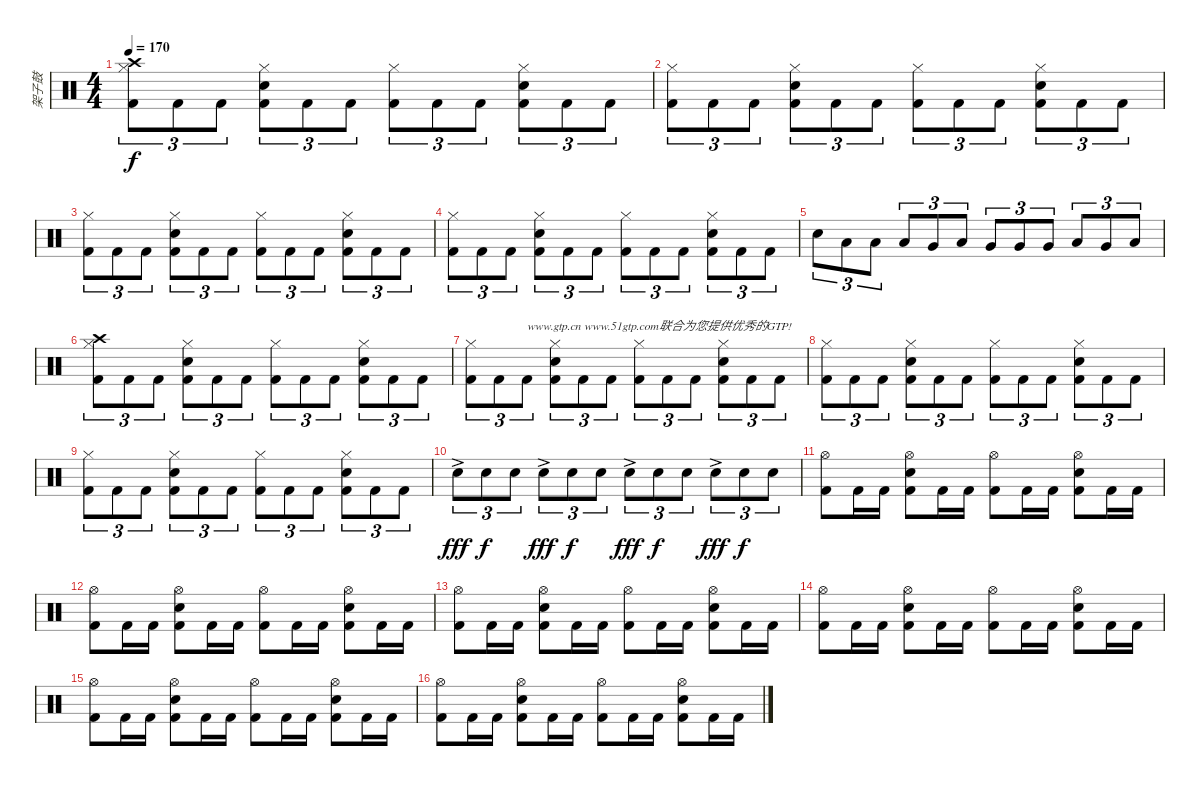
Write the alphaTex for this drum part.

\track ("架子鼓" "架子鼓") {instrument percussion}
\staff {score}
\articulation defaults
\ts (4 4)
\tempo 170
\clef neutral
\ks c
("Hi-Hat (closed)" "Kick (hit) 2" "Crash high (hit)").8{tu (3 2) dy f} "Kick (hit) 2".8{tu (3 2)} "Kick (hit) 2".8{tu (3 2)} ("Hi-Hat (closed)" "Snare (hit) 2" "Kick (hit) 2").8{tu (3 2)} "Kick (hit) 2".8{tu (3 2)} "Kick (hit) 2".8{tu (3 2)} ("Hi-Hat (closed)" "Kick (hit) 2").8{tu (3 2)} "Kick (hit) 2".8{tu (3 2)} "Kick (hit) 2".8{tu (3 2)} ("Hi-Hat (closed)" "Snare (hit) 2" "Kick (hit) 2").8{tu (3 2)} "Kick (hit) 2".8{tu (3 2)} "Kick (hit) 2".8{tu (3 2)} |
("Hi-Hat (closed)" "Kick (hit) 2").8{tu (3 2)} "Kick (hit) 2".8{tu (3 2)} "Kick (hit) 2".8{tu (3 2)} ("Hi-Hat (closed)" "Snare (hit) 2" "Kick (hit) 2").8{tu (3 2)} "Kick (hit) 2".8{tu (3 2)} "Kick (hit) 2".8{tu (3 2)} ("Hi-Hat (closed)" "Kick (hit) 2").8{tu (3 2)} "Kick (hit) 2".8{tu (3 2)} "Kick (hit) 2".8{tu (3 2)} ("Hi-Hat (closed)" "Snare (hit) 2" "Kick (hit) 2").8{tu (3 2)} "Kick (hit) 2".8{tu (3 2)} "Kick (hit) 2".8{tu (3 2)} |
("Hi-Hat (closed)" "Kick (hit) 2").8{tu (3 2)} "Kick (hit) 2".8{tu (3 2)} "Kick (hit) 2".8{tu (3 2)} ("Hi-Hat (closed)" "Snare (hit) 2" "Kick (hit) 2").8{tu (3 2)} "Kick (hit) 2".8{tu (3 2)} "Kick (hit) 2".8{tu (3 2)} ("Hi-Hat (closed)" "Kick (hit) 2").8{tu (3 2)} "Kick (hit) 2".8{tu (3 2)} "Kick (hit) 2".8{tu (3 2)} ("Hi-Hat (closed)" "Snare (hit) 2" "Kick (hit) 2").8{tu (3 2)} "Kick (hit) 2".8{tu (3 2)} "Kick (hit) 2".8{tu (3 2)} |
("Hi-Hat (closed)" "Kick (hit) 2").8{tu (3 2)} "Kick (hit) 2".8{tu (3 2)} "Kick (hit) 2".8{tu (3 2)} ("Hi-Hat (closed)" "Snare (hit) 2" "Kick (hit) 2").8{tu (3 2)} "Kick (hit) 2".8{tu (3 2)} "Kick (hit) 2".8{tu (3 2)} ("Hi-Hat (closed)" "Kick (hit) 2").8{tu (3 2)} "Kick (hit) 2".8{tu (3 2)} "Kick (hit) 2".8{tu (3 2)} ("Hi-Hat (closed)" "Snare (hit) 2" "Kick (hit) 2").8{tu (3 2)} "Kick (hit) 2".8{tu (3 2)} "Kick (hit) 2".8{tu (3 2)} |
"Snare (hit) 2".8{tu (3 2)} "Low Tom (hit)".8{tu (3 2)} "Low Tom (hit)".8{tu (3 2)} "Low Tom (hit)".8{tu (3 2)} "Very Low Tom (hit)".8{tu (3 2)} "Low Tom (hit)".8{tu (3 2)} "Very Low Tom (hit)".8{tu (3 2)} "Very Low Tom (hit)".8{tu (3 2)} "Very Low Tom (hit)".8{tu (3 2)} "Low Floor Tom (hit)".8{tu (3 2)} "Very Low Tom (hit)".8{tu (3 2)} "Low Floor Tom (hit)".8{tu (3 2)} |
("Hi-Hat (closed)" "Kick (hit) 2" "Crash high (hit)").8{tu (3 2)} "Kick (hit) 2".8{tu (3 2)} "Kick (hit) 2".8{tu (3 2)} ("Hi-Hat (closed)" "Snare (hit) 2" "Kick (hit) 2").8{tu (3 2)} "Kick (hit) 2".8{tu (3 2)} "Kick (hit) 2".8{tu (3 2)} ("Hi-Hat (closed)" "Kick (hit) 2").8{tu (3 2)} "Kick (hit) 2".8{tu (3 2)} "Kick (hit) 2".8{tu (3 2)} ("Hi-Hat (closed)" "Snare (hit) 2" "Kick (hit) 2").8{tu (3 2)} "Kick (hit) 2".8{tu (3 2)} "Kick (hit) 2".8{tu (3 2)} |
("Hi-Hat (closed)" "Kick (hit) 2").8{tu (3 2)} "Kick (hit) 2".8{tu (3 2)} "Kick (hit) 2".8{tu (3 2) txt "www.gtp.cn www.51gtp.com联合为您提供优秀的GTP!"} ("Hi-Hat (closed)" "Snare (hit) 2" "Kick (hit) 2").8{tu (3 2)} "Kick (hit) 2".8{tu (3 2)} "Kick (hit) 2".8{tu (3 2)} ("Hi-Hat (closed)" "Kick (hit) 2").8{tu (3 2)} "Kick (hit) 2".8{tu (3 2)} "Kick (hit) 2".8{tu (3 2)} ("Hi-Hat (closed)" "Snare (hit) 2" "Kick (hit) 2").8{tu (3 2)} "Kick (hit) 2".8{tu (3 2)} "Kick (hit) 2".8{tu (3 2)} |
("Hi-Hat (closed)" "Kick (hit) 2").8{tu (3 2)} "Kick (hit) 2".8{tu (3 2)} "Kick (hit) 2".8{tu (3 2)} ("Hi-Hat (closed)" "Snare (hit) 2" "Kick (hit) 2").8{tu (3 2)} "Kick (hit) 2".8{tu (3 2)} "Kick (hit) 2".8{tu (3 2)} ("Hi-Hat (closed)" "Kick (hit) 2").8{tu (3 2)} "Kick (hit) 2".8{tu (3 2)} "Kick (hit) 2".8{tu (3 2)} ("Hi-Hat (closed)" "Snare (hit) 2" "Kick (hit) 2").8{tu (3 2)} "Kick (hit) 2".8{tu (3 2)} "Kick (hit) 2".8{tu (3 2)} |
("Hi-Hat (closed)" "Kick (hit) 2").8{tu (3 2)} "Kick (hit) 2".8{tu (3 2)} "Kick (hit) 2".8{tu (3 2)} ("Hi-Hat (closed)" "Snare (hit) 2" "Kick (hit) 2").8{tu (3 2)} "Kick (hit) 2".8{tu (3 2)} "Kick (hit) 2".8{tu (3 2)} ("Hi-Hat (closed)" "Kick (hit) 2").8{tu (3 2)} "Kick (hit) 2".8{tu (3 2)} "Kick (hit) 2".8{tu (3 2)} ("Hi-Hat (closed)" "Snare (hit) 2" "Kick (hit) 2").8{tu (3 2)} "Kick (hit) 2".8{tu (3 2)} "Kick (hit) 2".8{tu (3 2)} |
"Snare (hit) 2"{ac}.8{tu (3 2) dy fff} "Snare (hit) 2".8{tu (3 2) dy f} "Snare (hit) 2".8{tu (3 2)} "Snare (hit) 2"{ac}.8{tu (3 2) dy fff} "Snare (hit) 2".8{tu (3 2) dy f} "Snare (hit) 2".8{tu (3 2)} "Snare (hit) 2"{ac}.8{tu (3 2) dy fff} "Snare (hit) 2".8{tu (3 2) dy f} "Snare (hit) 2".8{tu (3 2)} "Snare (hit) 2"{ac}.8{tu (3 2) dy fff} "Snare (hit) 2".8{tu (3 2) dy f} "Snare (hit) 2".8{tu (3 2)} |
("Hi-Hat (open)" "Kick (hit) 2").8 "Kick (hit) 2".16 "Kick (hit) 2".16 ("Hi-Hat (open)" "Snare (hit) 2" "Kick (hit) 2").8 "Kick (hit) 2".16 "Kick (hit) 2".16 ("Hi-Hat (open)" "Kick (hit) 2").8 "Kick (hit) 2".16 "Kick (hit) 2".16 ("Hi-Hat (open)" "Snare (hit) 2" "Kick (hit) 2").8 "Kick (hit) 2".16 "Kick (hit) 2".16 |
("Hi-Hat (open)" "Kick (hit) 2").8 "Kick (hit) 2".16 "Kick (hit) 2".16 ("Hi-Hat (open)" "Snare (hit) 2" "Kick (hit) 2").8 "Kick (hit) 2".16 "Kick (hit) 2".16 ("Hi-Hat (open)" "Kick (hit) 2").8 "Kick (hit) 2".16 "Kick (hit) 2".16 ("Hi-Hat (open)" "Snare (hit) 2" "Kick (hit) 2").8 "Kick (hit) 2".16 "Kick (hit) 2".16 |
("Hi-Hat (open)" "Kick (hit) 2").8 "Kick (hit) 2".16 "Kick (hit) 2".16 ("Hi-Hat (open)" "Snare (hit) 2" "Kick (hit) 2").8 "Kick (hit) 2".16 "Kick (hit) 2".16 ("Hi-Hat (open)" "Kick (hit) 2").8 "Kick (hit) 2".16 "Kick (hit) 2".16 ("Hi-Hat (open)" "Snare (hit) 2" "Kick (hit) 2").8 "Kick (hit) 2".16 "Kick (hit) 2".16 |
("Hi-Hat (open)" "Kick (hit) 2").8 "Kick (hit) 2".16 "Kick (hit) 2".16 ("Hi-Hat (open)" "Snare (hit) 2" "Kick (hit) 2").8 "Kick (hit) 2".16 "Kick (hit) 2".16 ("Hi-Hat (open)" "Kick (hit) 2").8 "Kick (hit) 2".16 "Kick (hit) 2".16 ("Hi-Hat (open)" "Snare (hit) 2" "Kick (hit) 2").8 "Kick (hit) 2".16 "Kick (hit) 2".16 |
("Hi-Hat (open)" "Kick (hit) 2").8 "Kick (hit) 2".16 "Kick (hit) 2".16 ("Hi-Hat (open)" "Snare (hit) 2" "Kick (hit) 2").8 "Kick (hit) 2".16 "Kick (hit) 2".16 ("Hi-Hat (open)" "Kick (hit) 2").8 "Kick (hit) 2".16 "Kick (hit) 2".16 ("Hi-Hat (open)" "Snare (hit) 2" "Kick (hit) 2").8 "Kick (hit) 2".16 "Kick (hit) 2".16 |
("Hi-Hat (open)" "Kick (hit) 2").8 "Kick (hit) 2".16 "Kick (hit) 2".16 ("Hi-Hat (open)" "Snare (hit) 2" "Kick (hit) 2").8 "Kick (hit) 2".16 "Kick (hit) 2".16 ("Hi-Hat (open)" "Kick (hit) 2").8 "Kick (hit) 2".16 "Kick (hit) 2".16 ("Hi-Hat (open)" "Snare (hit) 2" "Kick (hit) 2").8 "Kick (hit) 2".16 "Kick (hit) 2".16
